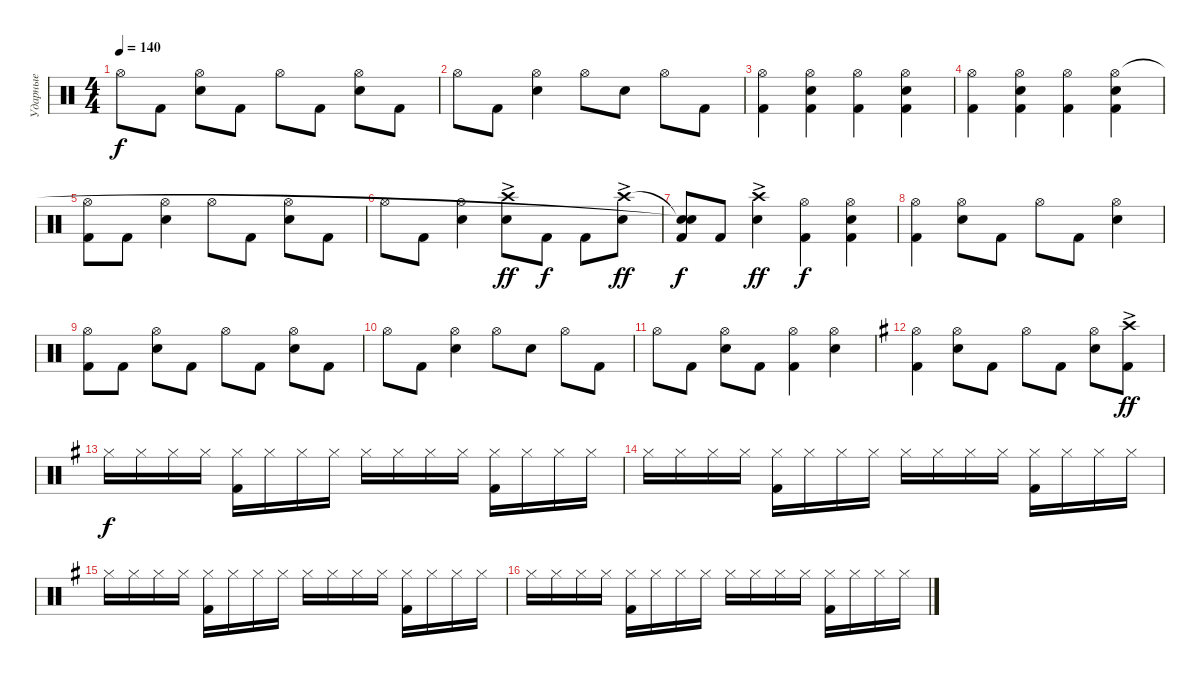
\track ("Ударные" "Ударные") {instrument percussion}
\staff {score}
\articulation defaults
\ts (4 4)
\tempo 140
\clef neutral
\ks c "Hi-Hat (open)".8{dy f} "Kick (hit) 2".8
("Snare (hit) 2" "Hi-Hat (open)").8 "Kick (hit) 2".8 "Hi-Hat (open)".8 "Kick (hit) 2".8 ("Snare (hit) 2" "Hi-Hat (open)").8 "Kick (hit) 2".8 |
"Hi-Hat (open)".8 "Kick (hit) 2".8 ("Snare (hit) 2" "Hi-Hat (open)").4 "Hi-Hat (open)".8 "Snare (hit) 2".8 "Hi-Hat (open)".8 "Kick (hit) 2".8 |
("Kick (hit) 2" "Hi-Hat (open)").4 ("Kick (hit) 2" "Snare (hit) 2" "Hi-Hat (open)").4 ("Kick (hit) 2" "Hi-Hat (open)").4 ("Kick (hit) 2" "Snare (hit) 2" "Hi-Hat (open)").4 |
("Kick (hit) 2" "Hi-Hat (open)").4 ("Kick (hit) 2" "Snare (hit) 2" "Hi-Hat (open)").4 ("Kick (hit) 2" "Hi-Hat (open)").4 ("Kick (hit) 2" "Snare (hit) 2" "Hi-Hat (open)").4 |
("Kick (hit) 2" "Hi-Hat (open)").8 "Kick (hit) 2".8 ("Snare (hit) 2" "Hi-Hat (open)").4 "Hi-Hat (open)".8 "Kick (hit) 2".8 ("Snare (hit) 2" "Hi-Hat (open)").8 "Kick (hit) 2".8 |
"Hi-Hat (open)".8 "Kick (hit) 2".8 ("Snare (hit) 2" "Hi-Hat (open)").4 ("Snare (hit) 2" "Crash high (hit)"{ac}).8{dy ff} "Kick (hit) 2".8{dy f} "Kick (hit) 2".8 ("Snare (hit) 2" "Crash high (hit)"{ac}).8{dy ff} |
("Kick (hit) 2" "Snare (hit) 2"{t} "Snare (hit)"{t}).8{dy f} "Kick (hit) 2".8 ("Snare (hit) 2" "Crash high (hit)"{ac}).4{dy ff} ("Kick (hit) 2" "Hi-Hat (open)").4{dy f} ("Kick (hit) 2" "Snare (hit) 2" "Hi-Hat (open)").4 |
("Kick (hit) 2" "Hi-Hat (open)").4 ("Snare (hit) 2" "Hi-Hat (open)").8 "Kick (hit) 2".8 "Hi-Hat (open)".8 "Kick (hit) 2".8 ("Snare (hit) 2" "Hi-Hat (open)").4 |
("Kick (hit) 2" "Hi-Hat (open)").8 "Kick (hit) 2".8 ("Snare (hit) 2" "Hi-Hat (open)").8 "Kick (hit) 2".8 "Hi-Hat (open)".8 "Kick (hit) 2".8 ("Snare (hit) 2" "Hi-Hat (open)").8 "Kick (hit) 2".8 |
"Hi-Hat (open)".8 "Kick (hit) 2".8 ("Snare (hit) 2" "Hi-Hat (open)").4 "Hi-Hat (open)".8 "Snare (hit) 2".8 "Hi-Hat (open)".8 "Kick (hit) 2".8 |
"Hi-Hat (open)".8 "Kick (hit) 2".8 ("Snare (hit) 2" "Hi-Hat (open)").8 "Kick (hit) 2".8 ("Kick (hit) 2" "Hi-Hat (open)").4 ("Snare (hit) 2" "Hi-Hat (open)").4 |
\ks g
("Kick (hit) 2" "Hi-Hat (open)").4 ("Snare (hit) 2" "Hi-Hat (open)").8 "Kick (hit) 2".8 "Hi-Hat (open)".8 "Kick (hit) 2".8 ("Snare (hit) 2" "Hi-Hat (open)").8 ("Kick (hit) 2"{ac} "Crash high (hit)"{ac}).8{dy ff} |
"Hi-Hat (closed)".16{dy f} "Hi-Hat (closed)".16 "Hi-Hat (closed)".16 "Hi-Hat (closed)".16 ("Hi-Hat (closed)" "Kick (hit) 2").16 "Hi-Hat (closed)".16 "Hi-Hat (closed)".16 "Hi-Hat (closed)".16 "Hi-Hat (closed)".16 "Hi-Hat (closed)".16 "Hi-Hat (closed)".16 "Hi-Hat (closed)".16 ("Hi-Hat (closed)" "Kick (hit) 2").16 "Hi-Hat (closed)".16 "Hi-Hat (closed)".16 "Hi-Hat (closed)".16 |
"Hi-Hat (closed)".16 "Hi-Hat (closed)".16 "Hi-Hat (closed)".16 "Hi-Hat (closed)".16 ("Hi-Hat (closed)" "Kick (hit) 2").16 "Hi-Hat (closed)".16 "Hi-Hat (closed)".16 "Hi-Hat (closed)".16 "Hi-Hat (closed)".16 "Hi-Hat (closed)".16 "Hi-Hat (closed)".16 "Hi-Hat (closed)".16 ("Hi-Hat (closed)" "Kick (hit) 2").16 "Hi-Hat (closed)".16 "Hi-Hat (closed)".16 "Hi-Hat (closed)".16 |
"Hi-Hat (closed)".16 "Hi-Hat (closed)".16 "Hi-Hat (closed)".16 "Hi-Hat (closed)".16 ("Hi-Hat (closed)" "Kick (hit) 2").16 "Hi-Hat (closed)".16 "Hi-Hat (closed)".16 "Hi-Hat (closed)".16 "Hi-Hat (closed)".16 "Hi-Hat (closed)".16 "Hi-Hat (closed)".16 "Hi-Hat (closed)".16 ("Hi-Hat (closed)" "Kick (hit) 2").16 "Hi-Hat (closed)".16 "Hi-Hat (closed)".16 "Hi-Hat (closed)".16 |
"Hi-Hat (closed)".16 "Hi-Hat (closed)".16 "Hi-Hat (closed)".16 "Hi-Hat (closed)".16 ("Hi-Hat (closed)" "Kick (hit) 2").16 "Hi-Hat (closed)".16 "Hi-Hat (closed)".16 "Hi-Hat (closed)".16 "Hi-Hat (closed)".16 "Hi-Hat (closed)".16 "Hi-Hat (closed)".16 "Hi-Hat (closed)".16 ("Hi-Hat (closed)" "Kick (hit) 2").16 "Hi-Hat (closed)".16 "Hi-Hat (closed)".16 "Hi-Hat (closed)".16
